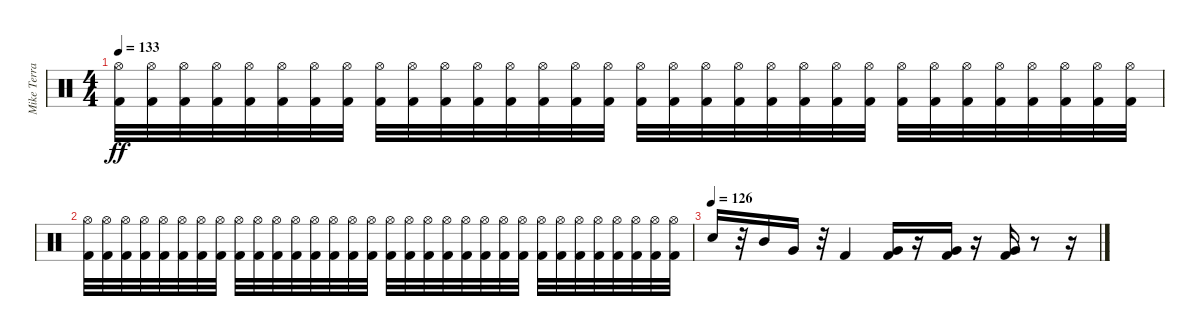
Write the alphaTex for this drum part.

\track ("Mike Terrana" "Mike Terra") {instrument percussion}
\staff {score}
\articulation defaults
\ts (4 4)
\tempo 133
\clef neutral
\ks c
("Hi-Hat (open)" "Kick (hit) 2").32{dy ff} ("Hi-Hat (open)" "Kick (hit) 2").32 ("Hi-Hat (open)" "Kick (hit) 2").32 ("Hi-Hat (open)" "Kick (hit) 2").32 ("Hi-Hat (open)" "Kick (hit) 2").32 ("Hi-Hat (open)" "Kick (hit) 2").32 ("Hi-Hat (open)" "Kick (hit) 2").32 ("Hi-Hat (open)" "Kick (hit) 2").32 ("Hi-Hat (open)" "Kick (hit) 2").32 ("Hi-Hat (open)" "Kick (hit) 2").32 ("Hi-Hat (open)" "Kick (hit) 2").32 ("Hi-Hat (open)" "Kick (hit) 2").32 ("Hi-Hat (open)" "Kick (hit) 2").32 ("Hi-Hat (open)" "Kick (hit) 2").32 ("Hi-Hat (open)" "Kick (hit) 2").32 ("Hi-Hat (open)" "Kick (hit) 2").32 ("Hi-Hat (open)" "Kick (hit) 2").32 ("Hi-Hat (open)" "Kick (hit) 2").32 ("Hi-Hat (open)" "Kick (hit) 2").32 ("Hi-Hat (open)" "Kick (hit) 2").32 ("Hi-Hat (open)" "Kick (hit) 2").32 ("Hi-Hat (open)" "Kick (hit) 2").32 ("Hi-Hat (open)" "Kick (hit) 2").32 ("Hi-Hat (open)" "Kick (hit) 2").32 ("Hi-Hat (open)" "Kick (hit) 2").32 ("Hi-Hat (open)" "Kick (hit) 2").32 ("Hi-Hat (open)" "Kick (hit) 2").32 ("Hi-Hat (open)" "Kick (hit) 2").32 ("Hi-Hat (open)" "Kick (hit) 2").32 ("Hi-Hat (open)" "Kick (hit) 2").32 ("Hi-Hat (open)" "Kick (hit) 2").32 ("Hi-Hat (open)" "Kick (hit) 2").32 |
("Hi-Hat (open)" "Kick (hit) 2").32 ("Hi-Hat (open)" "Kick (hit) 2").32 ("Hi-Hat (open)" "Kick (hit) 2").32 ("Hi-Hat (open)" "Kick (hit) 2").32 ("Hi-Hat (open)" "Kick (hit) 2").32 ("Hi-Hat (open)" "Kick (hit) 2").32 ("Hi-Hat (open)" "Kick (hit) 2").32 ("Hi-Hat (open)" "Kick (hit) 2").32 ("Hi-Hat (open)" "Kick (hit) 2").32 ("Hi-Hat (open)" "Kick (hit) 2").32 ("Hi-Hat (open)" "Kick (hit) 2").32 ("Hi-Hat (open)" "Kick (hit) 2").32 ("Hi-Hat (open)" "Kick (hit) 2").32 ("Hi-Hat (open)" "Kick (hit) 2").32 ("Hi-Hat (open)" "Kick (hit) 2").32 ("Hi-Hat (open)" "Kick (hit) 2").32 ("Hi-Hat (open)" "Kick (hit) 2").32 ("Hi-Hat (open)" "Kick (hit) 2").32 ("Hi-Hat (open)" "Kick (hit) 2").32 ("Hi-Hat (open)" "Kick (hit) 2").32 ("Hi-Hat (open)" "Kick (hit) 2").32 ("Hi-Hat (open)" "Kick (hit) 2").32 ("Hi-Hat (open)" "Kick (hit) 2").32 ("Hi-Hat (open)" "Kick (hit) 2").32 ("Hi-Hat (open)" "Kick (hit) 2").32 ("Hi-Hat (open)" "Kick (hit) 2").32 ("Hi-Hat (open)" "Kick (hit) 2").32 ("Hi-Hat (open)" "Kick (hit) 2").32 ("Hi-Hat (open)" "Kick (hit) 2").32 ("Hi-Hat (open)" "Kick (hit) 2").32 ("Hi-Hat (open)" "Kick (hit) 2").32 ("Hi-Hat (open)" "Kick (hit) 2").32 |
\tempo (126)
"Snare (hit) 2".16 r.32 "Mid Tom (hit)".16 "Very Low Tom (hit)".16 r.32 "Kick (hit) 2".4 ("Very Low Tom (hit)" "Kick (hit) 2").16 r.16 ("Very Low Tom (hit)" "Kick (hit) 2").16 r.16 ("Very Low Tom (hit)" "Kick (hit) 2").16 r.8 r.16
